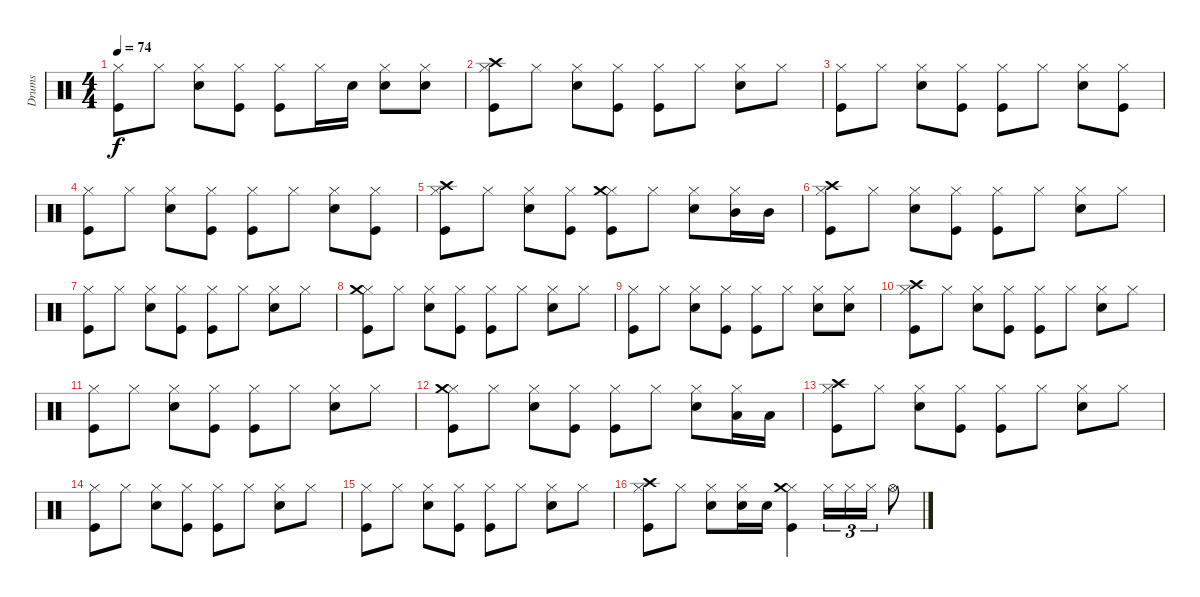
\track ("Drums" "Drums") {instrument percussion}
\staff {score}
\articulation defaults
\ts (4 4)
\tempo 74
\clef neutral
\ks c
("Kick (hit)" "Hi-Hat (closed)").8{dy f} "Hi-Hat (closed)".8 ("Electric Snare (hit)" "Hi-Hat (closed)").8 ("Kick (hit)" "Hi-Hat (closed)").8 ("Kick (hit)" "Hi-Hat (closed)").8 "Hi-Hat (closed)".16 "Electric Snare (hit)".16 ("Electric Snare (hit)" "Hi-Hat (closed)").8 ("Electric Snare (hit)" "Hi-Hat (closed)").8 |
("Kick (hit)" "Hi-Hat (closed)" "Crash high (hit)").8 "Hi-Hat (closed)".8 ("Electric Snare (hit)" "Hi-Hat (closed)").8 ("Kick (hit)" "Hi-Hat (closed)").8 ("Kick (hit)" "Hi-Hat (closed)").8 "Hi-Hat (closed)".8 ("Electric Snare (hit)" "Hi-Hat (closed)").8 "Hi-Hat (closed)".8 |
("Kick (hit)" "Hi-Hat (closed)").8 "Hi-Hat (closed)".8 ("Electric Snare (hit)" "Hi-Hat (closed)").8 ("Kick (hit)" "Hi-Hat (closed)").8 ("Kick (hit)" "Hi-Hat (closed)").8 "Hi-Hat (closed)".8 ("Electric Snare (hit)" "Hi-Hat (closed)").8 ("Kick (hit)" "Hi-Hat (closed)").8 |
("Kick (hit)" "Hi-Hat (closed)").8 "Hi-Hat (closed)".8 ("Electric Snare (hit)" "Hi-Hat (closed)").8 ("Kick (hit)" "Hi-Hat (closed)").8 ("Kick (hit)" "Hi-Hat (closed)").8 "Hi-Hat (closed)".8 ("Electric Snare (hit)" "Hi-Hat (closed)").8 ("Kick (hit)" "Hi-Hat (closed)").8 |
("Kick (hit)" "Hi-Hat (closed)" "Crash high (hit)").8 "Hi-Hat (closed)".8 ("Electric Snare (hit)" "Hi-Hat (closed)").8 ("Kick (hit)" "Hi-Hat (closed)").8 ("Kick (hit)" "Hi-Hat (closed)" "Crash medium (hit)").8 "Hi-Hat (closed)".8 ("Electric Snare (hit)" "Hi-Hat (closed)").8 ("Mid Tom (hit)" "Hi-Hat (closed)").16 "Mid Tom (hit)".16 |
("Kick (hit)" "Hi-Hat (closed)" "Crash high (hit)").8 "Hi-Hat (closed)".8 ("Electric Snare (hit)" "Hi-Hat (closed)").8 ("Kick (hit)" "Hi-Hat (closed)").8 ("Kick (hit)" "Hi-Hat (closed)").8 "Hi-Hat (closed)".8 ("Electric Snare (hit)" "Hi-Hat (closed)").8 "Hi-Hat (closed)".8 |
("Kick (hit)" "Hi-Hat (closed)").8 "Hi-Hat (closed)".8 ("Electric Snare (hit)" "Hi-Hat (closed)").8 ("Kick (hit)" "Hi-Hat (closed)").8 ("Kick (hit)" "Hi-Hat (closed)").8 "Hi-Hat (closed)".8 ("Electric Snare (hit)" "Hi-Hat (closed)").8 "Hi-Hat (closed)".8 |
("Kick (hit)" "Hi-Hat (closed)" "Crash medium (hit)").8 "Hi-Hat (closed)".8 ("Electric Snare (hit)" "Hi-Hat (closed)").8 ("Kick (hit)" "Hi-Hat (closed)").8 ("Kick (hit)" "Hi-Hat (closed)").8 "Hi-Hat (closed)".8 ("Electric Snare (hit)" "Hi-Hat (closed)").8 "Hi-Hat (closed)".8 |
("Kick (hit)" "Hi-Hat (closed)").8 "Hi-Hat (closed)".8 ("Electric Snare (hit)" "Hi-Hat (closed)").8 ("Kick (hit)" "Hi-Hat (closed)").8 ("Kick (hit)" "Hi-Hat (closed)").8 "Hi-Hat (closed)".8 ("Electric Snare (hit)" "Hi-Hat (closed)").8 ("Electric Snare (hit)" "Hi-Hat (closed)").8 |
("Kick (hit)" "Hi-Hat (closed)" "Crash high (hit)").8 "Hi-Hat (closed)".8 ("Electric Snare (hit)" "Hi-Hat (closed)").8 ("Kick (hit)" "Hi-Hat (closed)").8 ("Kick (hit)" "Hi-Hat (closed)").8 "Hi-Hat (closed)".8 ("Electric Snare (hit)" "Hi-Hat (closed)").8 "Hi-Hat (closed)".8 |
("Kick (hit)" "Hi-Hat (closed)").8 "Hi-Hat (closed)".8 ("Electric Snare (hit)" "Hi-Hat (closed)").8 ("Kick (hit)" "Hi-Hat (closed)").8 ("Kick (hit)" "Hi-Hat (closed)").8 "Hi-Hat (closed)".8 ("Electric Snare (hit)" "Hi-Hat (closed)").8 "Hi-Hat (closed)".8 |
("Kick (hit)" "Hi-Hat (closed)" "Crash medium (hit)").8 "Hi-Hat (closed)".8 ("Electric Snare (hit)" "Hi-Hat (closed)").8 ("Kick (hit)" "Hi-Hat (closed)").8 ("Kick (hit)" "Hi-Hat (closed)").8 "Hi-Hat (closed)".8 ("Electric Snare (hit)" "Hi-Hat (closed)").8 ("Low Tom (hit)" "Hi-Hat (closed)").16 "Low Tom (hit)".16 |
("Kick (hit)" "Hi-Hat (closed)" "Crash high (hit)").8 "Hi-Hat (closed)".8 ("Electric Snare (hit)" "Hi-Hat (closed)").8 ("Kick (hit)" "Hi-Hat (closed)").8 ("Kick (hit)" "Hi-Hat (closed)").8 "Hi-Hat (closed)".8 ("Electric Snare (hit)" "Hi-Hat (closed)").8 "Hi-Hat (closed)".8 |
("Kick (hit)" "Hi-Hat (closed)").8 "Hi-Hat (closed)".8 ("Electric Snare (hit)" "Hi-Hat (closed)").8 ("Kick (hit)" "Hi-Hat (closed)").8 ("Kick (hit)" "Hi-Hat (closed)").8 "Hi-Hat (closed)".8 ("Electric Snare (hit)" "Hi-Hat (closed)").8 "Hi-Hat (closed)".8 |
("Kick (hit)" "Hi-Hat (closed)").8 "Hi-Hat (closed)".8 ("Electric Snare (hit)" "Hi-Hat (closed)").8 ("Kick (hit)" "Hi-Hat (closed)").8 ("Kick (hit)" "Hi-Hat (closed)").8 "Hi-Hat (closed)".8 ("Electric Snare (hit)" "Hi-Hat (closed)").8 "Hi-Hat (closed)".8 |
("Kick (hit)" "Hi-Hat (closed)" "Crash high (hit)").8 "Hi-Hat (closed)".8 ("Electric Snare (hit)" "Hi-Hat (closed)").8 ("Electric Snare (hit)" "Hi-Hat (closed)").16 "Electric Snare (hit)".16 ("Kick (hit)" "Hi-Hat (closed)" "Crash medium (hit)").4 "Hi-Hat (closed)".16{tu (3 2)} "Hi-Hat (closed)".16{tu (3 2)} "Hi-Hat (closed)".16{tu (3 2)} "Hi-Hat (open)".8
